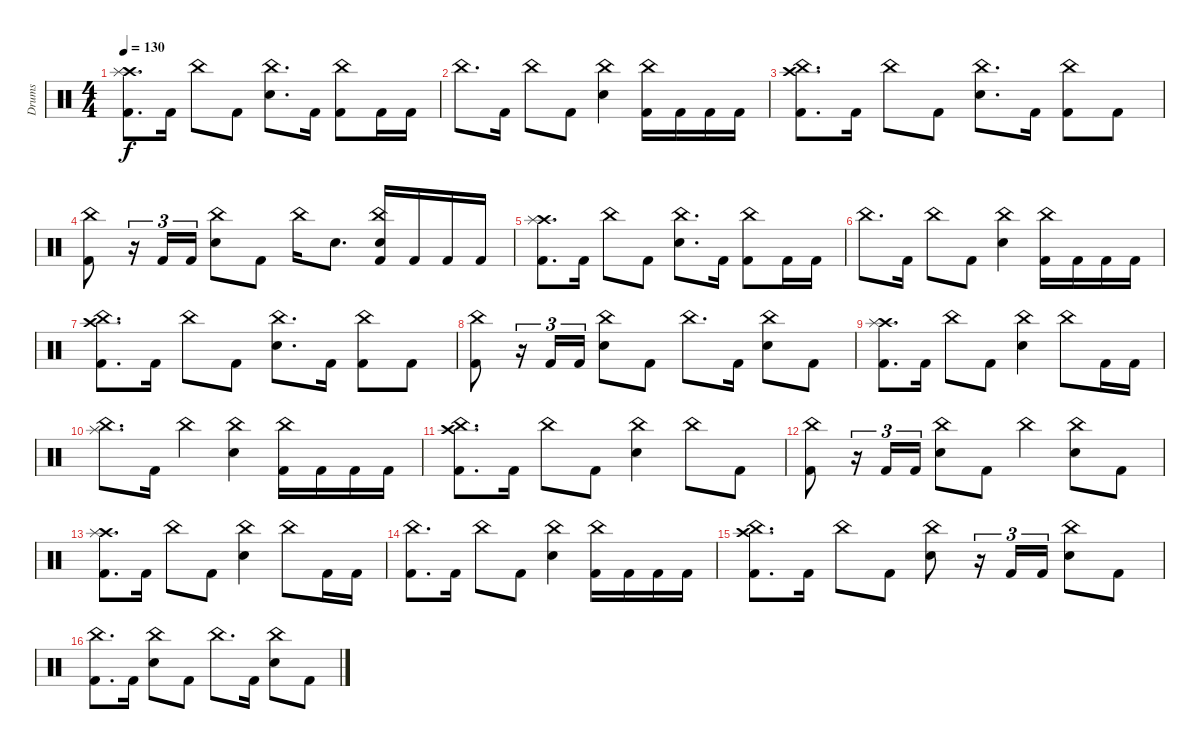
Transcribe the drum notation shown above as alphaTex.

\track ("Drums" "Drums") {instrument percussion}
\staff {score}
\articulation defaults
\ts (4 4)
\tempo 130
\clef neutral
\ks c
("Crash high (hit)" "Splash (hit)" "Kick (hit) 2").8{d dy f} "Kick (hit) 2".16 "China (hit)".8 "Kick (hit) 2".8 ("China (hit)" "Electric Snare (hit)").8{d} "Kick (hit) 2".16 ("China (hit)" "Kick (hit) 2").8 "Kick (hit) 2".16 "Kick (hit) 2".16 |
"China (hit)".8{d} "Kick (hit) 2".16 "China (hit)".8 "Kick (hit) 2".8 ("China (hit)" "Electric Snare (hit)").4 ("China (hit)" "Kick (hit) 2").16 "Kick (hit) 2".16 "Kick (hit) 2".16 "Kick (hit) 2".16 |
("China (hit)" "Crash high (hit)" "Kick (hit) 2").8{d} "Kick (hit) 2".16 "China (hit)".8 "Kick (hit) 2".8 ("China (hit)" "Electric Snare (hit)").8{d} "Kick (hit) 2".16 ("China (hit)" "Kick (hit) 2").8 "Kick (hit) 2".8 |
("China (hit)" "Kick (hit) 2").8 r.16{tu (3 2)} "Kick (hit) 2".16{tu (3 2)} "Kick (hit) 2".16{tu (3 2)} ("China (hit)" "Electric Snare (hit)").8 "Kick (hit) 2".8 "China (hit)".16 "Electric Snare (hit)".8{d} ("China (hit)" "Electric Snare (hit)" "Kick (hit) 2").16 "Kick (hit) 2".16 "Kick (hit) 2".16 "Kick (hit) 2".16 |
("Crash high (hit)" "Splash (hit)" "Kick (hit) 2").8{d} "Kick (hit) 2".16 "China (hit)".8 "Kick (hit) 2".8 ("China (hit)" "Electric Snare (hit)").8{d} "Kick (hit) 2".16 ("China (hit)" "Kick (hit) 2").8 "Kick (hit) 2".16 "Kick (hit) 2".16 |
"China (hit)".8{d} "Kick (hit) 2".16 "China (hit)".8 "Kick (hit) 2".8 ("China (hit)" "Electric Snare (hit)").4 ("China (hit)" "Kick (hit) 2").16 "Kick (hit) 2".16 "Kick (hit) 2".16 "Kick (hit) 2".16 |
("China (hit)" "Crash high (hit)" "Kick (hit) 2").8{d} "Kick (hit) 2".16 "China (hit)".8 "Kick (hit) 2".8 ("China (hit)" "Electric Snare (hit)").8{d} "Kick (hit) 2".16 ("China (hit)" "Kick (hit) 2").8 "Kick (hit) 2".8 |
("China (hit)" "Kick (hit) 2").8 r.16{tu (3 2)} "Kick (hit) 2".16{tu (3 2)} "Kick (hit) 2".16{tu (3 2)} ("China (hit)" "Electric Snare (hit)").8 "Kick (hit) 2".8 "China (hit)".8{d} "Kick (hit) 2".16 ("China (hit)" "Electric Snare (hit)").8 "Kick (hit) 2".8 |
("Crash high (hit)" "Splash (hit)" "Kick (hit) 2").8{d} "Kick (hit) 2".16 "China (hit)".8 "Kick (hit) 2".8 ("China (hit)" "Electric Snare (hit)").4 "China (hit)".8 "Kick (hit) 2".16 "Kick (hit) 2".16 |
("China (hit)" "Splash (hit)").8{d} "Kick (hit) 2".16 "China (hit)".4 ("China (hit)" "Electric Snare (hit)").4 ("China (hit)" "Kick (hit) 2").16 "Kick (hit) 2".16 "Kick (hit) 2".16 "Kick (hit) 2".16 |
("China (hit)" "Crash high (hit)" "Kick (hit) 2").8{d} "Kick (hit) 2".16 "China (hit)".8 "Kick (hit) 2".8 ("China (hit)" "Electric Snare (hit)").4 "China (hit)".8 "Kick (hit) 2".8 |
("China (hit)" "Kick (hit) 2").8 r.16{tu (3 2)} "Kick (hit) 2".16{tu (3 2)} "Kick (hit) 2".16{tu (3 2)} ("China (hit)" "Electric Snare (hit)").8 "Kick (hit) 2".8 "China (hit)".4 ("China (hit)" "Electric Snare (hit)").8 "Kick (hit) 2".8 |
("Crash high (hit)" "Splash (hit)" "Kick (hit) 2").8{d} "Kick (hit) 2".16 "China (hit)".8 "Kick (hit) 2".8 ("China (hit)" "Electric Snare (hit)").4 "China (hit)".8 "Kick (hit) 2".16 "Kick (hit) 2".16 |
("China (hit)" "Kick (hit) 2").8{d} "Kick (hit) 2".16 "China (hit)".8 "Kick (hit) 2".8 ("China (hit)" "Electric Snare (hit)").4 ("China (hit)" "Kick (hit) 2").16 "Kick (hit) 2".16 "Kick (hit) 2".16 "Kick (hit) 2".16 |
("China (hit)" "Crash high (hit)" "Kick (hit) 2").8{d} "Kick (hit) 2".16 "China (hit)".8 "Kick (hit) 2".8 ("China (hit)" "Electric Snare (hit)").8 r.16{tu (3 2)} "Kick (hit) 2".16{tu (3 2)} "Kick (hit) 2".16{tu (3 2)} ("China (hit)" "Electric Snare (hit)").8 "Kick (hit) 2".8 |
("China (hit)" "Kick (hit) 2").8{d} "Kick (hit) 2".16 ("China (hit)" "Electric Snare (hit)").8 "Kick (hit) 2".8 "China (hit)".8{d} "Kick (hit) 2".16 ("China (hit)" "Electric Snare (hit)").8 "Kick (hit) 2".8
